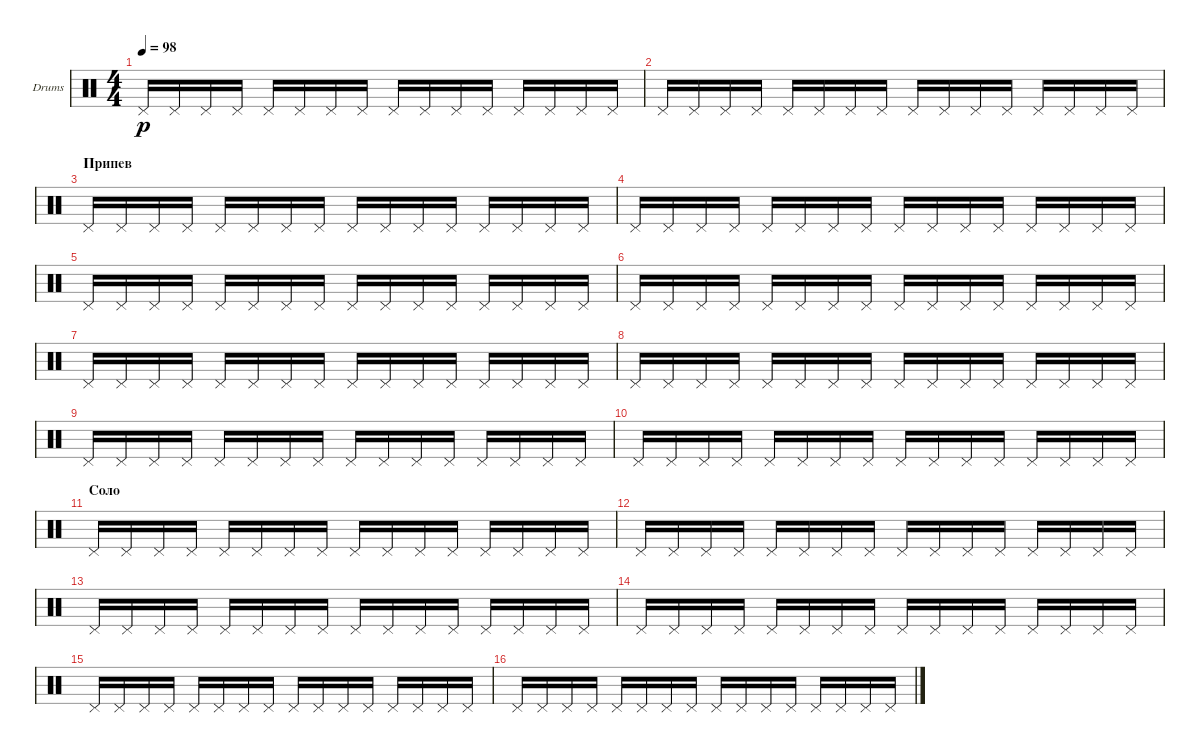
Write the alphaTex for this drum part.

\defaultSystemsLayout 4
\bracketExtendMode groupsimilarinstruments
\firstSystemTrackNameOrientation horizontal
\otherSystemsTrackNameOrientation horizontal
\track ("Е. Кулаков" "Drums") {instrument percussion}
\staff {score}
\articulation defaults
\ts (4 4)
\tempo 98
\clef neutral
\ks c "Pedal Hi-Hat (hit)".16{dy p} "Pedal Hi-Hat (hit)".16 "Pedal Hi-Hat (hit)".16 "Pedal Hi-Hat (hit)".16 "Pedal Hi-Hat (hit)".16 "Pedal Hi-Hat (hit)".16 "Pedal Hi-Hat (hit)".16 "Pedal Hi-Hat (hit)".16 "Pedal Hi-Hat (hit)".16 "Pedal Hi-Hat (hit)".16 "Pedal Hi-Hat (hit)".16 "Pedal Hi-Hat (hit)".16 "Pedal Hi-Hat (hit)".16 "Pedal Hi-Hat (hit)".16 "Pedal Hi-Hat (hit)".16 "Pedal Hi-Hat (hit)".16
|
"Pedal Hi-Hat (hit)".16 "Pedal Hi-Hat (hit)".16 "Pedal Hi-Hat (hit)".16 "Pedal Hi-Hat (hit)".16 "Pedal Hi-Hat (hit)".16 "Pedal Hi-Hat (hit)".16 "Pedal Hi-Hat (hit)".16 "Pedal Hi-Hat (hit)".16 "Pedal Hi-Hat (hit)".16 "Pedal Hi-Hat (hit)".16 "Pedal Hi-Hat (hit)".16 "Pedal Hi-Hat (hit)".16 "Pedal Hi-Hat (hit)".16 "Pedal Hi-Hat (hit)".16 "Pedal Hi-Hat (hit)".16 "Pedal Hi-Hat (hit)".16 |
\section ("" "Припев")
"Pedal Hi-Hat (hit)".16 "Pedal Hi-Hat (hit)".16 "Pedal Hi-Hat (hit)".16 "Pedal Hi-Hat (hit)".16 "Pedal Hi-Hat (hit)".16 "Pedal Hi-Hat (hit)".16 "Pedal Hi-Hat (hit)".16 "Pedal Hi-Hat (hit)".16 "Pedal Hi-Hat (hit)".16 "Pedal Hi-Hat (hit)".16 "Pedal Hi-Hat (hit)".16 "Pedal Hi-Hat (hit)".16 "Pedal Hi-Hat (hit)".16 "Pedal Hi-Hat (hit)".16 "Pedal Hi-Hat (hit)".16 "Pedal Hi-Hat (hit)".16 |
"Pedal Hi-Hat (hit)".16 "Pedal Hi-Hat (hit)".16 "Pedal Hi-Hat (hit)".16 "Pedal Hi-Hat (hit)".16 "Pedal Hi-Hat (hit)".16 "Pedal Hi-Hat (hit)".16 "Pedal Hi-Hat (hit)".16 "Pedal Hi-Hat (hit)".16 "Pedal Hi-Hat (hit)".16 "Pedal Hi-Hat (hit)".16 "Pedal Hi-Hat (hit)".16 "Pedal Hi-Hat (hit)".16 "Pedal Hi-Hat (hit)".16 "Pedal Hi-Hat (hit)".16 "Pedal Hi-Hat (hit)".16 "Pedal Hi-Hat (hit)".16 |
"Pedal Hi-Hat (hit)".16 "Pedal Hi-Hat (hit)".16 "Pedal Hi-Hat (hit)".16 "Pedal Hi-Hat (hit)".16 "Pedal Hi-Hat (hit)".16 "Pedal Hi-Hat (hit)".16 "Pedal Hi-Hat (hit)".16 "Pedal Hi-Hat (hit)".16 "Pedal Hi-Hat (hit)".16 "Pedal Hi-Hat (hit)".16 "Pedal Hi-Hat (hit)".16 "Pedal Hi-Hat (hit)".16 "Pedal Hi-Hat (hit)".16 "Pedal Hi-Hat (hit)".16 "Pedal Hi-Hat (hit)".16 "Pedal Hi-Hat (hit)".16 |
"Pedal Hi-Hat (hit)".16 "Pedal Hi-Hat (hit)".16 "Pedal Hi-Hat (hit)".16 "Pedal Hi-Hat (hit)".16 "Pedal Hi-Hat (hit)".16 "Pedal Hi-Hat (hit)".16 "Pedal Hi-Hat (hit)".16 "Pedal Hi-Hat (hit)".16 "Pedal Hi-Hat (hit)".16 "Pedal Hi-Hat (hit)".16 "Pedal Hi-Hat (hit)".16 "Pedal Hi-Hat (hit)".16 "Pedal Hi-Hat (hit)".16 "Pedal Hi-Hat (hit)".16 "Pedal Hi-Hat (hit)".16 "Pedal Hi-Hat (hit)".16 |
"Pedal Hi-Hat (hit)".16 "Pedal Hi-Hat (hit)".16 "Pedal Hi-Hat (hit)".16 "Pedal Hi-Hat (hit)".16 "Pedal Hi-Hat (hit)".16 "Pedal Hi-Hat (hit)".16 "Pedal Hi-Hat (hit)".16 "Pedal Hi-Hat (hit)".16 "Pedal Hi-Hat (hit)".16 "Pedal Hi-Hat (hit)".16 "Pedal Hi-Hat (hit)".16 "Pedal Hi-Hat (hit)".16 "Pedal Hi-Hat (hit)".16 "Pedal Hi-Hat (hit)".16 "Pedal Hi-Hat (hit)".16 "Pedal Hi-Hat (hit)".16 |
"Pedal Hi-Hat (hit)".16 "Pedal Hi-Hat (hit)".16 "Pedal Hi-Hat (hit)".16 "Pedal Hi-Hat (hit)".16 "Pedal Hi-Hat (hit)".16 "Pedal Hi-Hat (hit)".16 "Pedal Hi-Hat (hit)".16 "Pedal Hi-Hat (hit)".16 "Pedal Hi-Hat (hit)".16 "Pedal Hi-Hat (hit)".16 "Pedal Hi-Hat (hit)".16 "Pedal Hi-Hat (hit)".16 "Pedal Hi-Hat (hit)".16 "Pedal Hi-Hat (hit)".16 "Pedal Hi-Hat (hit)".16 "Pedal Hi-Hat (hit)".16 |
"Pedal Hi-Hat (hit)".16 "Pedal Hi-Hat (hit)".16 "Pedal Hi-Hat (hit)".16 "Pedal Hi-Hat (hit)".16 "Pedal Hi-Hat (hit)".16 "Pedal Hi-Hat (hit)".16 "Pedal Hi-Hat (hit)".16 "Pedal Hi-Hat (hit)".16 "Pedal Hi-Hat (hit)".16 "Pedal Hi-Hat (hit)".16 "Pedal Hi-Hat (hit)".16 "Pedal Hi-Hat (hit)".16 "Pedal Hi-Hat (hit)".16 "Pedal Hi-Hat (hit)".16 "Pedal Hi-Hat (hit)".16 "Pedal Hi-Hat (hit)".16 |
"Pedal Hi-Hat (hit)".16 "Pedal Hi-Hat (hit)".16 "Pedal Hi-Hat (hit)".16 "Pedal Hi-Hat (hit)".16 "Pedal Hi-Hat (hit)".16 "Pedal Hi-Hat (hit)".16 "Pedal Hi-Hat (hit)".16 "Pedal Hi-Hat (hit)".16 "Pedal Hi-Hat (hit)".16 "Pedal Hi-Hat (hit)".16 "Pedal Hi-Hat (hit)".16 "Pedal Hi-Hat (hit)".16 "Pedal Hi-Hat (hit)".16 "Pedal Hi-Hat (hit)".16 "Pedal Hi-Hat (hit)".16 "Pedal Hi-Hat (hit)".16 |
\section ("" "Соло")
"Pedal Hi-Hat (hit)".16 "Pedal Hi-Hat (hit)".16 "Pedal Hi-Hat (hit)".16 "Pedal Hi-Hat (hit)".16 "Pedal Hi-Hat (hit)".16 "Pedal Hi-Hat (hit)".16 "Pedal Hi-Hat (hit)".16 "Pedal Hi-Hat (hit)".16 "Pedal Hi-Hat (hit)".16 "Pedal Hi-Hat (hit)".16 "Pedal Hi-Hat (hit)".16 "Pedal Hi-Hat (hit)".16 "Pedal Hi-Hat (hit)".16 "Pedal Hi-Hat (hit)".16 "Pedal Hi-Hat (hit)".16 "Pedal Hi-Hat (hit)".16 |
"Pedal Hi-Hat (hit)".16 "Pedal Hi-Hat (hit)".16 "Pedal Hi-Hat (hit)".16 "Pedal Hi-Hat (hit)".16 "Pedal Hi-Hat (hit)".16 "Pedal Hi-Hat (hit)".16 "Pedal Hi-Hat (hit)".16 "Pedal Hi-Hat (hit)".16 "Pedal Hi-Hat (hit)".16 "Pedal Hi-Hat (hit)".16 "Pedal Hi-Hat (hit)".16 "Pedal Hi-Hat (hit)".16 "Pedal Hi-Hat (hit)".16 "Pedal Hi-Hat (hit)".16 "Pedal Hi-Hat (hit)".16 "Pedal Hi-Hat (hit)".16 |
"Pedal Hi-Hat (hit)".16 "Pedal Hi-Hat (hit)".16 "Pedal Hi-Hat (hit)".16 "Pedal Hi-Hat (hit)".16 "Pedal Hi-Hat (hit)".16 "Pedal Hi-Hat (hit)".16 "Pedal Hi-Hat (hit)".16 "Pedal Hi-Hat (hit)".16 "Pedal Hi-Hat (hit)".16 "Pedal Hi-Hat (hit)".16 "Pedal Hi-Hat (hit)".16 "Pedal Hi-Hat (hit)".16 "Pedal Hi-Hat (hit)".16 "Pedal Hi-Hat (hit)".16 "Pedal Hi-Hat (hit)".16 "Pedal Hi-Hat (hit)".16 |
"Pedal Hi-Hat (hit)".16 "Pedal Hi-Hat (hit)".16 "Pedal Hi-Hat (hit)".16 "Pedal Hi-Hat (hit)".16 "Pedal Hi-Hat (hit)".16 "Pedal Hi-Hat (hit)".16 "Pedal Hi-Hat (hit)".16 "Pedal Hi-Hat (hit)".16 "Pedal Hi-Hat (hit)".16 "Pedal Hi-Hat (hit)".16 "Pedal Hi-Hat (hit)".16 "Pedal Hi-Hat (hit)".16 "Pedal Hi-Hat (hit)".16 "Pedal Hi-Hat (hit)".16 "Pedal Hi-Hat (hit)".16 "Pedal Hi-Hat (hit)".16 |
"Pedal Hi-Hat (hit)".16 "Pedal Hi-Hat (hit)".16 "Pedal Hi-Hat (hit)".16 "Pedal Hi-Hat (hit)".16 "Pedal Hi-Hat (hit)".16 "Pedal Hi-Hat (hit)".16 "Pedal Hi-Hat (hit)".16 "Pedal Hi-Hat (hit)".16 "Pedal Hi-Hat (hit)".16 "Pedal Hi-Hat (hit)".16 "Pedal Hi-Hat (hit)".16 "Pedal Hi-Hat (hit)".16 "Pedal Hi-Hat (hit)".16 "Pedal Hi-Hat (hit)".16 "Pedal Hi-Hat (hit)".16 "Pedal Hi-Hat (hit)".16 |
"Pedal Hi-Hat (hit)".16 "Pedal Hi-Hat (hit)".16 "Pedal Hi-Hat (hit)".16 "Pedal Hi-Hat (hit)".16 "Pedal Hi-Hat (hit)".16 "Pedal Hi-Hat (hit)".16 "Pedal Hi-Hat (hit)".16 "Pedal Hi-Hat (hit)".16 "Pedal Hi-Hat (hit)".16 "Pedal Hi-Hat (hit)".16 "Pedal Hi-Hat (hit)".16 "Pedal Hi-Hat (hit)".16 "Pedal Hi-Hat (hit)".16 "Pedal Hi-Hat (hit)".16 "Pedal Hi-Hat (hit)".16 "Pedal Hi-Hat (hit)".16
